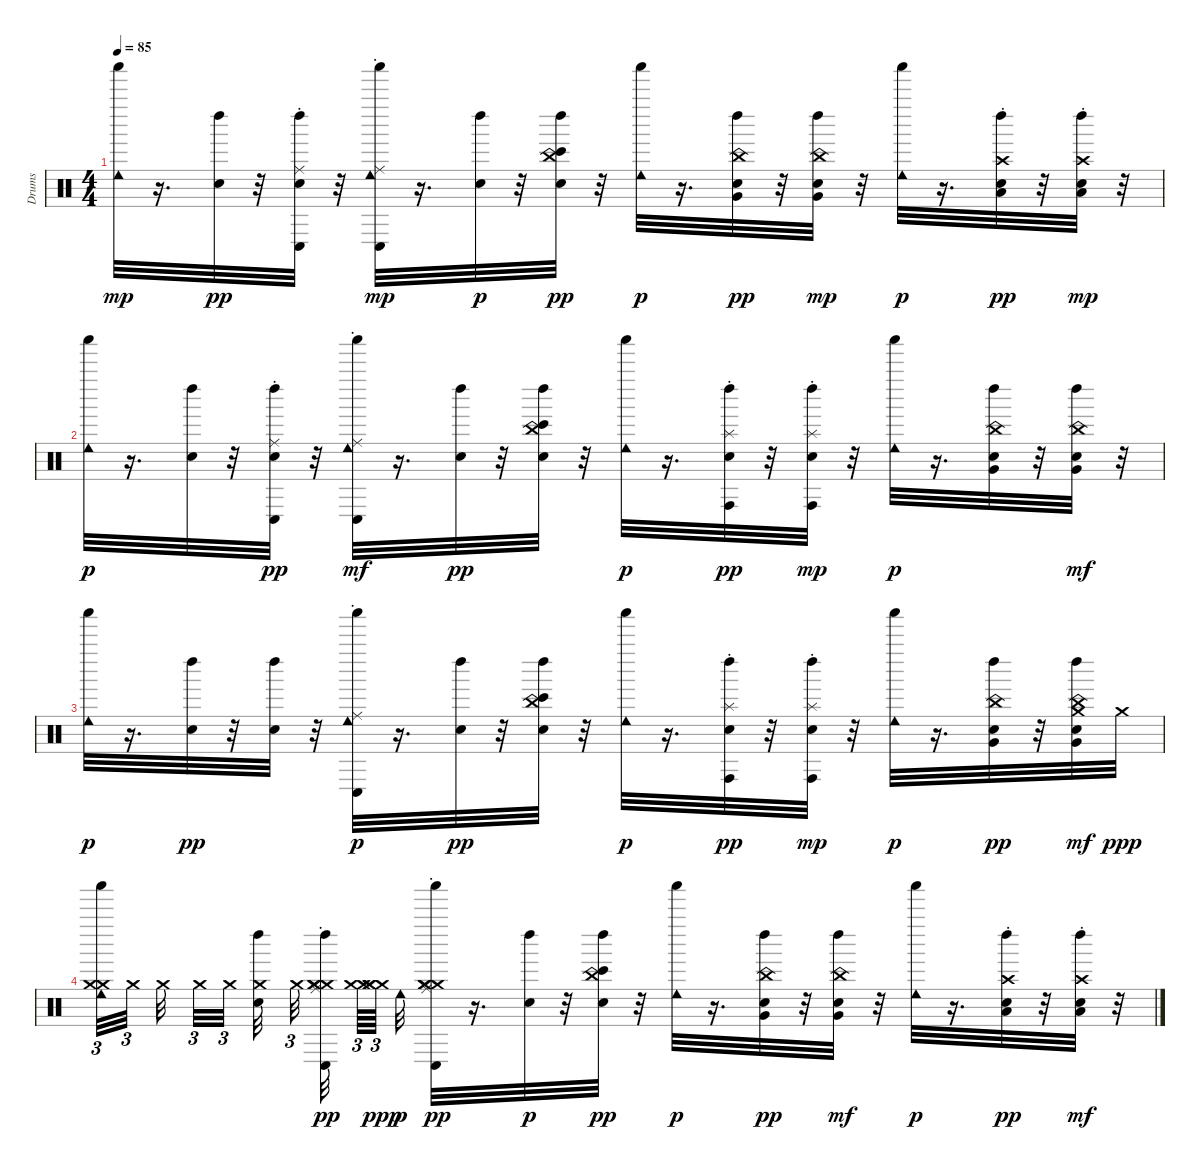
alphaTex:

\track ("Drums" "Drums") {instrument percussion}
\staff {score}
\articulation defaults
\ts (4 4)
\tempo 85
\clef neutral
\ks c
("Cowbell low (hit)" "Shaker (hit)").32{dy mp} r.16{d} ("Left Maraca (hit)" "Snare (hit)").32{dy pp} r.32 ("Conga low (hit)" "Ride (choke)" "Snare (hit)" "Left Maraca (hit)").32 r.32 ("Shaker (hit)" "Conga low (hit)" "Cowbell low (hit)" "Ride (choke)").32{dy mp} r.16{d} ("Snare (hit)" "Left Maraca (hit)").32{dy p} r.32 ("Bongo High (hit)" "China (choke)" "Left Maraca (hit)" "Snare (hit)").32{dy pp} r.32 ("Shaker (hit)" "Cowbell low (hit)").32{dy p} r.16{d} ("China (choke)" "Very Low Tom (hit)" "Left Maraca (hit)" "Snare (hit)").32{dy pp} r.32 ("Left Maraca (hit)" "China (choke)" "Snare (hit)" "Very Low Tom (hit)").32{dy mp} r.32 ("Shaker (hit)" "Cowbell low (hit)").32{dy p} r.16{d} ("Low Floor Tom (hit)" "Crash high (choke)" "Left Maraca (hit)" "Snare (hit)").32{dy pp} r.32 ("Left Maraca (hit)" "Crash high (choke)" "Snare (hit)" "Low Floor Tom (hit)").32{dy mp} r.32 |
("Shaker (hit)" "Cowbell low (hit)").32{dy p} r.16{d} ("Snare (hit)" "Left Maraca (hit)").32 r.32 ("Conga low (hit)" "Ride (choke)" "Left Maraca (hit)" "Snare (hit)").32{dy pp} r.32 ("Shaker (hit)" "Cowbell low (hit)" "Ride (choke)" "Conga low (hit)").32{dy mf} r.16{d} ("Left Maraca (hit)" "Snare (hit)").32{dy pp} r.32 ("Bongo High (hit)" "China (choke)" "Snare (hit)" "Left Maraca (hit)").32 r.32 ("Shaker (hit)" "Cowbell low (hit)").32{dy p} r.16{d} ("Conga high (hit)" "Left Maraca (hit)" "Splash (choke)" "Snare (hit)").32{dy pp} r.32 ("Snare (hit)" "Left Maraca (hit)" "Conga high (hit)" "Splash (choke)").32{dy mp} r.32 ("Shaker (hit)" "Cowbell low (hit)").32{dy p} r.16{d} ("China (choke)" "Very Low Tom (hit)" "Left Maraca (hit)" "Snare (hit)").32 r.32 ("Snare (hit)" "Left Maraca (hit)" "Very Low Tom (hit)" "China (choke)").32{dy mf} r.32 |
("Shaker (hit)" "Cowbell low (hit)").32{dy p} r.16{d} ("Left Maraca (hit)" "Snare (hit)").32{dy pp} r.32 ("Left Maraca (hit)" "Snare (hit)").32 r.32 ("Conga low (hit)" "Ride (choke)" "Shaker (hit)" "Cowbell low (hit)").32{dy p} r.16{d} ("Left Maraca (hit)" "Snare (hit)").32{dy pp} r.32 ("Bongo High (hit)" "China (choke)" "Left Maraca (hit)" "Snare (hit)").32 r.32 ("Shaker (hit)" "Cowbell low (hit)").32{dy p} r.16{d} ("Conga high (hit)" "Splash (choke)" "Left Maraca (hit)" "Snare (hit)").32{dy pp} r.32 ("Left Maraca (hit)" "Snare (hit)" "Conga high (hit)" "Splash (choke)").32{dy mp} r.32 ("Cowbell low (hit)" "Shaker (hit)").32{dy p} r.16{d} ("China (choke)" "Very Low Tom (hit)" "Left Maraca (hit)" "Snare (hit)").32{dy pp} r.32 ("Crash medium (hit)" "Left Maraca (hit)" "Snare (hit)" "China (choke)" "Very Low Tom (hit)").32{dy mf} "Crash medium (hit)".32{dy ppp} |
("Crash medium (hit)" "Shaker (hit)" "Cowbell low (hit)" "Crash medium (hit)").32{tu (3 2)} "Crash medium (hit)".32{tu (3 2)} "Crash medium (hit)".32 "Crash medium (hit)".32{tu (3 2)} "Crash medium (hit)".32{tu (3 2)} ("Snare (hit)" "Left Maraca (hit)" "Crash medium (hit)").32 "Crash medium (hit)".32{tu (3 2)} ("Crash medium (hit)" "Crash medium (hit)" "Conga low (hit)" "Ride (choke)" "Crash medium (hit)" "Left Maraca (hit)").32{dy pp} ("Crash medium (hit)" "Crash medium (hit)").64{tu (3 2)} ("Crash medium (hit)" "Crash medium (hit)" "Crash medium (hit)").64{tu (3 2) dy ppp} "Cowbell low (hit)".32{dy p} ("Shaker (hit)" "Crash medium (hit)" "Conga low (hit)" "Ride (choke)" "Crash medium (hit)" "Crash medium (hit)").32{dy pp} r.16{d} ("Snare (hit)" "Left Maraca (hit)").32{dy p} r.32 ("Bongo High (hit)" "China (choke)" "Left Maraca (hit)" "Snare (hit)").32{dy pp} r.32 ("Shaker (hit)" "Cowbell low (hit)").32{dy p} r.16{d} ("China (choke)" "Very Low Tom (hit)" "Left Maraca (hit)" "Snare (hit)").32{dy pp} r.32 ("Snare (hit)" "Left Maraca (hit)" "Very Low Tom (hit)" "China (choke)").32{dy mf} r.32 ("Shaker (hit)" "Cowbell low (hit)").32{dy p} r.16{d} ("Crash high (choke)" "Low Floor Tom (hit)" "Left Maraca (hit)" "Snare (hit)").32{dy pp} r.32 ("Left Maraca (hit)" "Snare (hit)" "Crash high (choke)" "Low Floor Tom (hit)").32{dy mf} r.32
